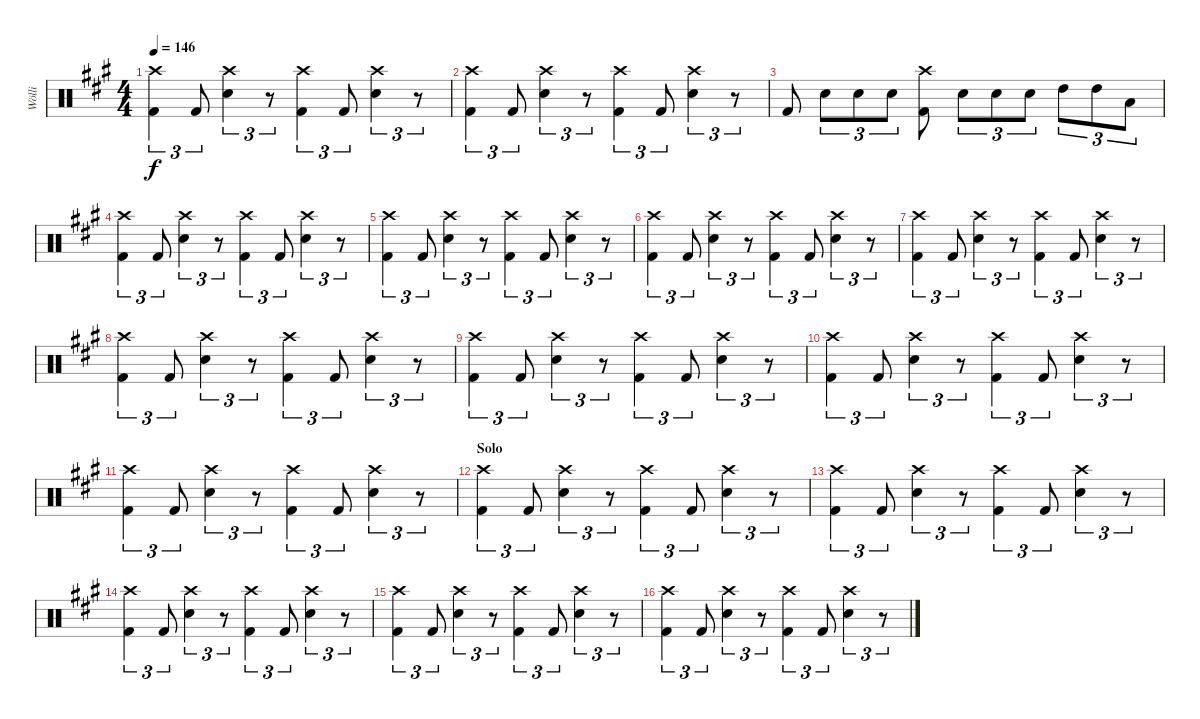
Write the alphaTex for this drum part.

\track ("Wölli" "Wölli") {instrument percussion}
\staff {score}
\articulation defaults
\ts (4 4)
\tempo 146
\clef neutral
\ks a
("Crash high (hit)" "Kick (hit) 2").4{tu (3 2) dy f} "Kick (hit) 2".8{tu (3 2)} ("Crash high (hit)" "Snare (hit) 2").4{tu (3 2)} r.8{tu (3 2)} ("Crash high (hit)" "Kick (hit) 2").4{tu (3 2)} "Kick (hit) 2".8{tu (3 2)} ("Crash high (hit)" "Snare (hit) 2").4{tu (3 2)} r.8{tu (3 2)} |
("Crash high (hit)" "Kick (hit) 2").4{tu (3 2)} "Kick (hit) 2".8{tu (3 2)} ("Crash high (hit)" "Snare (hit) 2").4{tu (3 2)} r.8{tu (3 2)} ("Crash high (hit)" "Kick (hit) 2").4{tu (3 2)} "Kick (hit) 2".8{tu (3 2)} ("Crash high (hit)" "Snare (hit) 2").4{tu (3 2)} r.8{tu (3 2)} |
"Kick (hit) 2".8 "Snare (hit) 2".8{tu (3 2)} "Snare (hit) 2".8{tu (3 2)} "Snare (hit) 2".8{tu (3 2)} ("Crash high (hit)" "Kick (hit) 2").8 "Snare (hit) 2".8{tu (3 2)} "Snare (hit) 2".8{tu (3 2)} "Snare (hit) 2".8{tu (3 2)} "High Tom (hit)".8{tu (3 2)} "High Tom (hit)".8{tu (3 2)} "Low Tom (hit)".8{tu (3 2)} |
("Crash high (hit)" "Kick (hit) 2").4{tu (3 2)} "Kick (hit) 2".8{tu (3 2)} ("Crash high (hit)" "Snare (hit) 2").4{tu (3 2)} r.8{tu (3 2)} ("Crash high (hit)" "Kick (hit) 2").4{tu (3 2)} "Kick (hit) 2".8{tu (3 2)} ("Crash high (hit)" "Snare (hit) 2").4{tu (3 2)} r.8{tu (3 2)} |
("Crash high (hit)" "Kick (hit) 2").4{tu (3 2)} "Kick (hit) 2".8{tu (3 2)} ("Crash high (hit)" "Snare (hit) 2").4{tu (3 2)} r.8{tu (3 2)} ("Crash high (hit)" "Kick (hit) 2").4{tu (3 2)} "Kick (hit) 2".8{tu (3 2)} ("Crash high (hit)" "Snare (hit) 2").4{tu (3 2)} r.8{tu (3 2)} |
("Crash high (hit)" "Kick (hit) 2").4{tu (3 2)} "Kick (hit) 2".8{tu (3 2)} ("Crash high (hit)" "Snare (hit) 2").4{tu (3 2)} r.8{tu (3 2)} ("Crash high (hit)" "Kick (hit) 2").4{tu (3 2)} "Kick (hit) 2".8{tu (3 2)} ("Crash high (hit)" "Snare (hit) 2").4{tu (3 2)} r.8{tu (3 2)} |
("Crash high (hit)" "Kick (hit) 2").4{tu (3 2)} "Kick (hit) 2".8{tu (3 2)} ("Crash high (hit)" "Snare (hit) 2").4{tu (3 2)} r.8{tu (3 2)} ("Crash high (hit)" "Kick (hit) 2").4{tu (3 2)} "Kick (hit) 2".8{tu (3 2)} ("Crash high (hit)" "Snare (hit) 2").4{tu (3 2)} r.8{tu (3 2)} |
("Crash high (hit)" "Kick (hit) 2").4{tu (3 2)} "Kick (hit) 2".8{tu (3 2)} ("Crash high (hit)" "Snare (hit) 2").4{tu (3 2)} r.8{tu (3 2)} ("Crash high (hit)" "Kick (hit) 2").4{tu (3 2)} "Kick (hit) 2".8{tu (3 2)} ("Crash high (hit)" "Snare (hit) 2").4{tu (3 2)} r.8{tu (3 2)} |
("Crash high (hit)" "Kick (hit) 2").4{tu (3 2)} "Kick (hit) 2".8{tu (3 2)} ("Crash high (hit)" "Snare (hit) 2").4{tu (3 2)} r.8{tu (3 2)} ("Crash high (hit)" "Kick (hit) 2").4{tu (3 2)} "Kick (hit) 2".8{tu (3 2)} ("Crash high (hit)" "Snare (hit) 2").4{tu (3 2)} r.8{tu (3 2)} |
("Crash high (hit)" "Kick (hit) 2").4{tu (3 2)} "Kick (hit) 2".8{tu (3 2)} ("Crash high (hit)" "Snare (hit) 2").4{tu (3 2)} r.8{tu (3 2)} ("Crash high (hit)" "Kick (hit) 2").4{tu (3 2)} "Kick (hit) 2".8{tu (3 2)} ("Crash high (hit)" "Snare (hit) 2").4{tu (3 2)} r.8{tu (3 2)} |
("Crash high (hit)" "Kick (hit) 2").4{tu (3 2)} "Kick (hit) 2".8{tu (3 2)} ("Crash high (hit)" "Snare (hit) 2").4{tu (3 2)} r.8{tu (3 2)} ("Crash high (hit)" "Kick (hit) 2").4{tu (3 2)} "Kick (hit) 2".8{tu (3 2)} ("Crash high (hit)" "Snare (hit) 2").4{tu (3 2)} r.8{tu (3 2)} |
\section ("" "Solo")
("Crash high (hit)" "Kick (hit) 2").4{tu (3 2)} "Kick (hit) 2".8{tu (3 2)} ("Crash high (hit)" "Snare (hit) 2").4{tu (3 2)} r.8{tu (3 2)} ("Crash high (hit)" "Kick (hit) 2").4{tu (3 2)} "Kick (hit) 2".8{tu (3 2)} ("Crash high (hit)" "Snare (hit) 2").4{tu (3 2)} r.8{tu (3 2)} |
("Crash high (hit)" "Kick (hit) 2").4{tu (3 2)} "Kick (hit) 2".8{tu (3 2)} ("Crash high (hit)" "Snare (hit) 2").4{tu (3 2)} r.8{tu (3 2)} ("Crash high (hit)" "Kick (hit) 2").4{tu (3 2)} "Kick (hit) 2".8{tu (3 2)} ("Crash high (hit)" "Snare (hit) 2").4{tu (3 2)} r.8{tu (3 2)} |
("Crash high (hit)" "Kick (hit) 2").4{tu (3 2)} "Kick (hit) 2".8{tu (3 2)} ("Crash high (hit)" "Snare (hit) 2").4{tu (3 2)} r.8{tu (3 2)} ("Crash high (hit)" "Kick (hit) 2").4{tu (3 2)} "Kick (hit) 2".8{tu (3 2)} ("Crash high (hit)" "Snare (hit) 2").4{tu (3 2)} r.8{tu (3 2)} |
("Crash high (hit)" "Kick (hit) 2").4{tu (3 2)} "Kick (hit) 2".8{tu (3 2)} ("Crash high (hit)" "Snare (hit) 2").4{tu (3 2)} r.8{tu (3 2)} ("Crash high (hit)" "Kick (hit) 2").4{tu (3 2)} "Kick (hit) 2".8{tu (3 2)} ("Crash high (hit)" "Snare (hit) 2").4{tu (3 2)} r.8{tu (3 2)} |
("Crash high (hit)" "Kick (hit) 2").4{tu (3 2)} "Kick (hit) 2".8{tu (3 2)} ("Crash high (hit)" "Snare (hit) 2").4{tu (3 2)} r.8{tu (3 2)} ("Crash high (hit)" "Kick (hit) 2").4{tu (3 2)} "Kick (hit) 2".8{tu (3 2)} ("Crash high (hit)" "Snare (hit) 2").4{tu (3 2)} r.8{tu (3 2)}
